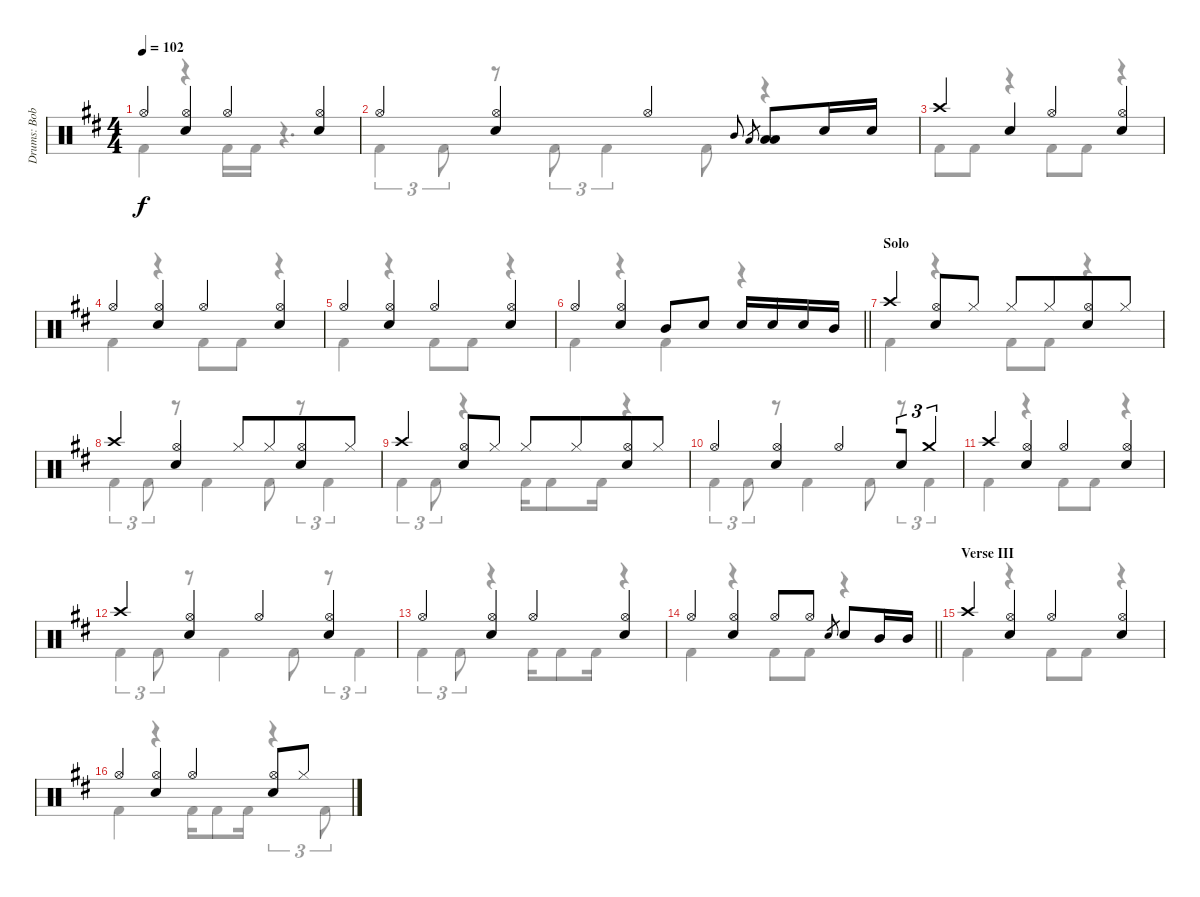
\track ("Drums: Bobby" "Drums: Bob") {instrument percussion}
\staff {score}
\articulation defaults
\voice
\ts (4 4)
\tempo 102
\clef neutral
\ks d "Hi-Hat (open)".4{dy f}
("Hi-Hat (open)" "Snare (hit) 2").4 "Hi-Hat (open)".4 ("Hi-Hat (open)" "Snare (hit) 2").4 |
"Hi-Hat (open)".4 ("Hi-Hat (open)" "Snare (hit) 2").4 "Hi-Hat (open)".4 "Mid Tom (hit)".16{gr onbeat} "Low Tom (hit)".16{gr} ("Low Tom (hit)" "Low Tom (hit)").8 "Snare (hit) 2".16 "Snare (hit) 2".16 |
"Crash high (hit)".4 "Snare (hit) 2".4 "Hi-Hat (open)".4 ("Hi-Hat (open)" "Snare (hit) 2").4 |
"Hi-Hat (open)".4 ("Hi-Hat (open)" "Snare (hit) 2").4 "Hi-Hat (open)".4 ("Hi-Hat (open)" "Snare (hit) 2").4 |
"Hi-Hat (open)".4 ("Hi-Hat (open)" "Snare (hit) 2").4 "Hi-Hat (open)".4 ("Hi-Hat (open)" "Snare (hit) 2").4 |
\barLineRight lightlight "Hi-Hat (open)".4
("Hi-Hat (open)" "Snare (hit) 2").4 "Mid Tom (hit)".8 "Snare (hit) 2".8 "Snare (hit) 2".16 "Snare (hit) 2".16 "Snare (hit) 2".16 "Mid Tom (hit)".16 |
\section ("" "Solo")
"Crash high (hit)".4{beam merge} ("Hi-Hat (open)" "Snare (hit) 2").8 "Hi-Hat (closed)".8 "Hi-Hat (closed)".8 "Hi-Hat (closed)".8{beam merge} ("Hi-Hat (open)" "Snare (hit) 2").8 "Hi-Hat (closed)".8 |
"Crash high (hit)".4{beam merge} ("Hi-Hat (open)" "Snare (hit) 2").4 "Hi-Hat (closed)".8 "Hi-Hat (closed)".8{beam merge} ("Hi-Hat (open)" "Snare (hit) 2").8 "Hi-Hat (closed)".8 |
"Crash high (hit)".4{beam merge} ("Hi-Hat (open)" "Snare (hit) 2").8 "Hi-Hat (closed)".8 "Hi-Hat (closed)".8 "Hi-Hat (closed)".8{beam merge} ("Hi-Hat (open)" "Snare (hit) 2").8 "Hi-Hat (closed)".8 |
"Hi-Hat (open)".4{beam merge} ("Hi-Hat (open)" "Snare (hit) 2").4{beam merge} "Hi-Hat (open)".4{beam merge} "Snare (hit) 2".8{tu (3 2)} "Crash medium (hit)".4{tu (3 2)} |
"Crash high (hit)".4{beam merge} ("Hi-Hat (open)" "Snare (hit) 2").4 "Hi-Hat (open)".4{beam merge} ("Hi-Hat (open)" "Snare (hit) 2").4 |
"Crash high (hit)".4{beam merge} ("Hi-Hat (open)" "Snare (hit) 2").4 "Hi-Hat (open)".4{beam merge} ("Hi-Hat (open)" "Snare (hit) 2").4 |
"Hi-Hat (open)".4{beam merge} ("Hi-Hat (open)" "Snare (hit) 2").4 "Hi-Hat (open)".4{beam merge} ("Hi-Hat (open)" "Snare (hit) 2").4 |
\barLineRight lightlight "Hi-Hat (open)".4{beam merge}
("Hi-Hat (open)" "Snare (hit) 2").4 "Hi-Hat (open)".8{beam merge} "Hi-Hat (open)".8 "Electric Snare (hit)".8{gr} "Snare (hit) 2".8 "Mid Tom (hit)".16 "Mid Tom (hit)".16 |
\section ("" "Verse III")
"Crash high (hit)".4 ("Hi-Hat (open)" "Snare (hit) 2").4 "Hi-Hat (open)".4 ("Hi-Hat (open)" "Snare (hit) 2").4 |
"Hi-Hat (open)".4 ("Hi-Hat (open)" "Snare (hit) 2").4 "Hi-Hat (open)".4 ("Hi-Hat (open)" "Snare (hit) 2").8 "Hi-Hat (closed)".8
\voice
\clef neutral
\ottava regular
\simile none
\ks d "Kick (hit) 2".4{dy f}
r.4 "Kick (hit) 2".16 "Kick (hit) 2".16 r.4{d} |
"Kick (hit) 2".4{tu (3 2)} "Kick (hit) 2".8{tu (3 2)} r.8 "Kick (hit) 2".8{tu (3 2)} "Kick (hit) 2".4{tu (3 2)} "Kick (hit) 2".8 r.4 |
"Kick (hit) 2".8 "Kick (hit) 2".8 r.4 "Kick (hit) 2".8 "Kick (hit) 2".8 r.4 |
"Kick (hit) 2".4 r.4 "Kick (hit) 2".8 "Kick (hit) 2".8 r.4 |
"Kick (hit) 2".4 r.4 "Kick (hit) 2".8 "Kick (hit) 2".8 r.4 |
\barLineRight lightlight "Kick (hit) 2".4
r.4 "Kick (hit) 2".4 r.4 |
"Kick (hit) 2".4 r.4 "Kick (hit) 2".8 "Kick (hit) 2".8 r.4 |
"Kick (hit) 2".4{tu (3 2)} "Kick (hit) 2".8{tu (3 2)} r.8 "Kick (hit) 2".4 "Kick (hit) 2".8 r.8{tu (3 2)} "Kick (hit) 2".4{tu (3 2)} |
"Kick (hit) 2".4{tu (3 2)} "Kick (hit) 2".8{tu (3 2)} r.4 "Kick (hit) 2".16 "Kick (hit) 2".8 "Kick (hit) 2".16 r.4 |
"Kick (hit) 2".4{tu (3 2)} "Kick (hit) 2".8{tu (3 2)} r.8 "Kick (hit) 2".4 "Kick (hit) 2".8 r.8{tu (3 2)} "Kick (hit) 2".4{tu (3 2)} |
"Kick (hit) 2".4 r.4 "Kick (hit) 2".8 "Kick (hit) 2".8 r.4 |
"Kick (hit) 2".4{tu (3 2)} "Kick (hit) 2".8{tu (3 2)} r.8 "Kick (hit) 2".4 "Kick (hit) 2".8 r.8{tu (3 2)} "Kick (hit) 2".4{tu (3 2)} |
"Kick (hit) 2".4{tu (3 2)} "Kick (hit) 2".8{tu (3 2)} r.4 "Kick (hit) 2".16 "Kick (hit) 2".8 "Kick (hit) 2".16 r.4 |
\barLineRight lightlight "Kick (hit) 2".4
r.4 "Kick (hit) 2".8 "Kick (hit) 2".8 r.4 |
"Kick (hit) 2".4 r.4 "Kick (hit) 2".8 "Kick (hit) 2".8 r.4 |
"Kick (hit) 2".4 r.4 "Kick (hit) 2".16 "Kick (hit) 2".8 "Kick (hit) 2".16 r.4{tu (3 2)} "Kick (hit) 2".8{tu (3 2)}
